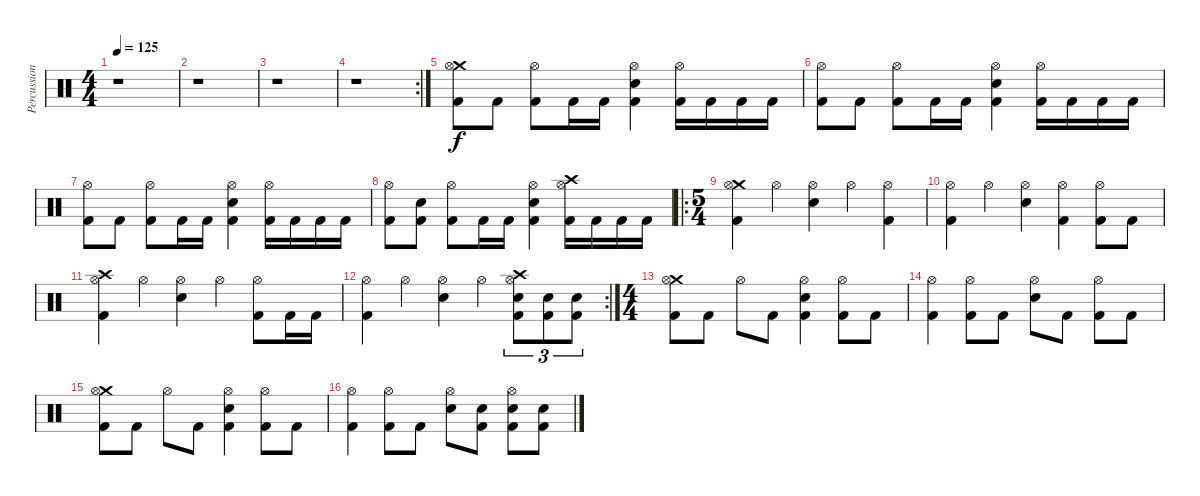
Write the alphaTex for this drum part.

\track ("Percussion" "Percussion") {instrument percussion}
\staff {score}
\articulation defaults
\ts (4 4)
\tempo 125
\clef neutral
\ks c
r.1{dy f} |
r.1 |
r.1 |
\rc 2
r.1 |
("Crash medium (hit)" "Hi-Hat (open)" "Kick (hit) 2").8 "Kick (hit) 2".8 ("Hi-Hat (open)" "Kick (hit) 2").8 "Kick (hit) 2".16 "Kick (hit) 2".16 ("Hi-Hat (open)" "Electric Snare (hit)" "Kick (hit) 2").4 ("Hi-Hat (open)" "Kick (hit) 2").16 "Kick (hit) 2".16 "Kick (hit) 2".16 "Kick (hit) 2".16 |
("Hi-Hat (open)" "Kick (hit) 2").8 "Kick (hit) 2".8 ("Hi-Hat (open)" "Kick (hit) 2").8 "Kick (hit) 2".16 "Kick (hit) 2".16 ("Hi-Hat (open)" "Electric Snare (hit)" "Kick (hit) 2").4 ("Hi-Hat (open)" "Kick (hit) 2").16 "Kick (hit) 2".16 "Kick (hit) 2".16 "Kick (hit) 2".16 |
("Hi-Hat (open)" "Kick (hit) 2").8 "Kick (hit) 2".8 ("Hi-Hat (open)" "Kick (hit) 2").8 "Kick (hit) 2".16 "Kick (hit) 2".16 ("Hi-Hat (open)" "Electric Snare (hit)" "Kick (hit) 2").4 ("Hi-Hat (open)" "Kick (hit) 2").16 "Kick (hit) 2".16 "Kick (hit) 2".16 "Kick (hit) 2".16 |
("Hi-Hat (open)" "Kick (hit) 2").8 ("Electric Snare (hit)" "Kick (hit) 2").8 ("Hi-Hat (open)" "Kick (hit) 2").8 "Kick (hit) 2".16 "Kick (hit) 2".16 ("Hi-Hat (open)" "Electric Snare (hit)" "Kick (hit) 2").4 ("Crash high (hit)" "Hi-Hat (open)" "Kick (hit) 2").16 "Kick (hit) 2".16 "Kick (hit) 2".16 "Kick (hit) 2".16 |
\ro
\ts (5 4)
("Crash medium (hit)" "Hi-Hat (open)" "Kick (hit) 2").4 "Hi-Hat (open)".4 ("Hi-Hat (open)" "Electric Snare (hit)").4 "Hi-Hat (open)".4 ("Hi-Hat (open)" "Kick (hit) 2").4 |
("Hi-Hat (open)" "Kick (hit) 2").4 "Hi-Hat (open)".4 ("Hi-Hat (open)" "Electric Snare (hit)").4 ("Hi-Hat (open)" "Kick (hit) 2").4 ("Hi-Hat (open)" "Kick (hit) 2").8 "Kick (hit) 2".8 |
("Crash high (hit)" "Hi-Hat (open)" "Kick (hit) 2").4 "Hi-Hat (open)".4 ("Hi-Hat (open)" "Electric Snare (hit)").4 "Hi-Hat (open)".4 ("Hi-Hat (open)" "Kick (hit) 2").8 "Kick (hit) 2".16 "Kick (hit) 2".16 |
\rc 2
("Hi-Hat (open)" "Kick (hit) 2").4 "Hi-Hat (open)".4 ("Hi-Hat (open)" "Electric Snare (hit)").4 "Hi-Hat (open)".4 ("Crash high (hit)" "Hi-Hat (open)" "Electric Snare (hit)" "Kick (hit) 2").8{tu (3 2)} ("Electric Snare (hit)" "Kick (hit) 2").8{tu (3 2)} ("Electric Snare (hit)" "Kick (hit) 2").8{tu (3 2)} |
\ts (4 4)
("Crash medium (hit)" "Hi-Hat (open)" "Kick (hit) 2").8 "Kick (hit) 2".8 "Hi-Hat (open)".8 "Kick (hit) 2".8 ("Hi-Hat (open)" "Electric Snare (hit)" "Kick (hit) 2").4 ("Hi-Hat (open)" "Kick (hit) 2").8 "Kick (hit) 2".8 |
("Hi-Hat (open)" "Kick (hit) 2").4 ("Hi-Hat (open)" "Kick (hit) 2").8 "Kick (hit) 2".8 ("Hi-Hat (open)" "Electric Snare (hit)").8 "Kick (hit) 2".8 ("Hi-Hat (open)" "Kick (hit) 2").8 "Kick (hit) 2".8 |
("Crash medium (hit)" "Hi-Hat (open)" "Kick (hit) 2").8 "Kick (hit) 2".8 "Hi-Hat (open)".8 "Kick (hit) 2".8 ("Hi-Hat (open)" "Electric Snare (hit)" "Kick (hit) 2").4 ("Hi-Hat (open)" "Kick (hit) 2").8 "Kick (hit) 2".8 |
("Hi-Hat (open)" "Kick (hit) 2").4 ("Hi-Hat (open)" "Kick (hit) 2").8 "Kick (hit) 2".8 ("Hi-Hat (open)" "Electric Snare (hit)").8 ("Electric Snare (hit)" "Kick (hit) 2").8 ("Hi-Hat (open)" "Electric Snare (hit)" "Kick (hit) 2").8 ("Electric Snare (hit)" "Kick (hit) 2").8
